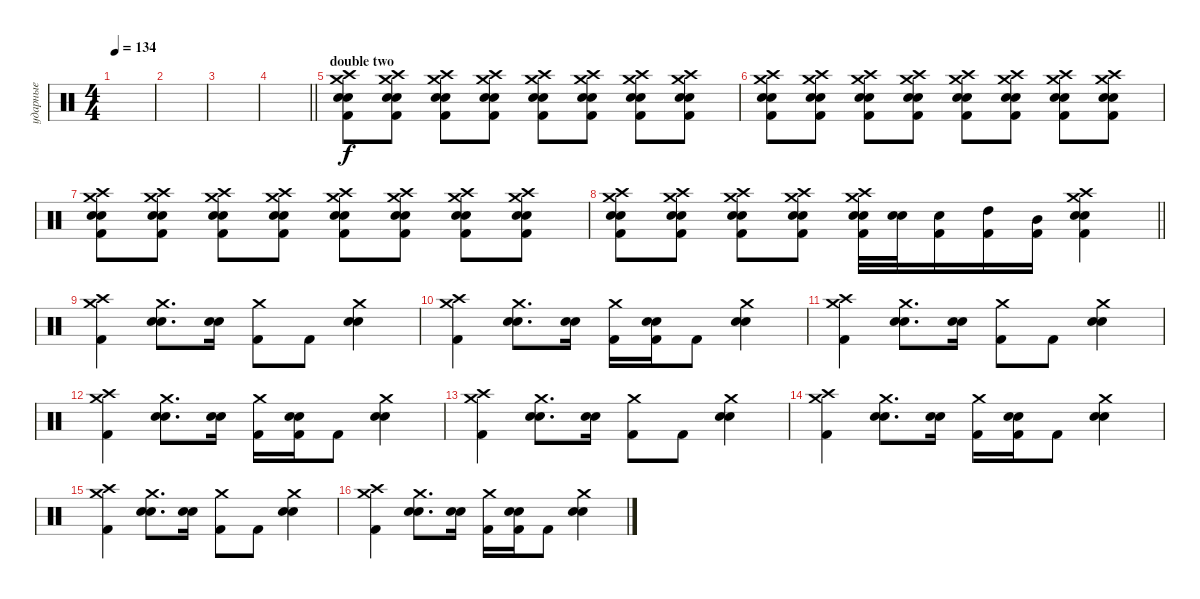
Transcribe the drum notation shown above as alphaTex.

\track ("ударные" "ударные") {instrument percussion}
\staff {score}
\articulation defaults
\ts (4 4)
\tempo 134
\clef neutral
\ks c
|
|
|
\barLineRight lightlight
|
\section ("" "double two")
("Crash high (hit)" "Crash medium (hit)" "Snare (hit) 2" "Electric Snare (hit)" "Kick (hit) 2").8 ("Crash high (hit)" "Crash medium (hit)" "Snare (hit) 2" "Electric Snare (hit)" "Kick (hit) 2").8 ("Crash high (hit)" "Crash medium (hit)" "Snare (hit) 2" "Electric Snare (hit)" "Kick (hit) 2").8 ("Crash high (hit)" "Crash medium (hit)" "Snare (hit) 2" "Electric Snare (hit)" "Kick (hit) 2").8 ("Crash high (hit)" "Crash medium (hit)" "Snare (hit) 2" "Electric Snare (hit)" "Kick (hit) 2").8 ("Crash high (hit)" "Crash medium (hit)" "Snare (hit) 2" "Electric Snare (hit)" "Kick (hit) 2").8 ("Crash high (hit)" "Crash medium (hit)" "Snare (hit) 2" "Electric Snare (hit)" "Kick (hit) 2").8 ("Crash high (hit)" "Crash medium (hit)" "Snare (hit) 2" "Electric Snare (hit)" "Kick (hit) 2").8 |
("Crash high (hit)" "Crash medium (hit)" "Snare (hit) 2" "Electric Snare (hit)" "Kick (hit) 2").8 ("Crash high (hit)" "Crash medium (hit)" "Snare (hit) 2" "Electric Snare (hit)" "Kick (hit) 2").8 ("Crash high (hit)" "Crash medium (hit)" "Snare (hit) 2" "Electric Snare (hit)" "Kick (hit) 2").8 ("Crash high (hit)" "Crash medium (hit)" "Snare (hit) 2" "Electric Snare (hit)" "Kick (hit) 2").8 ("Crash high (hit)" "Crash medium (hit)" "Snare (hit) 2" "Electric Snare (hit)" "Kick (hit) 2").8 ("Crash high (hit)" "Crash medium (hit)" "Snare (hit) 2" "Electric Snare (hit)" "Kick (hit) 2").8 ("Crash high (hit)" "Crash medium (hit)" "Snare (hit) 2" "Electric Snare (hit)" "Kick (hit) 2").8 ("Crash high (hit)" "Crash medium (hit)" "Snare (hit) 2" "Electric Snare (hit)" "Kick (hit) 2").8 |
("Crash high (hit)" "Crash medium (hit)" "Snare (hit) 2" "Electric Snare (hit)" "Kick (hit) 2").8 ("Crash high (hit)" "Crash medium (hit)" "Snare (hit) 2" "Electric Snare (hit)" "Kick (hit) 2").8 ("Crash high (hit)" "Crash medium (hit)" "Snare (hit) 2" "Electric Snare (hit)" "Kick (hit) 2").8 ("Crash high (hit)" "Crash medium (hit)" "Snare (hit) 2" "Electric Snare (hit)" "Kick (hit) 2").8 ("Crash high (hit)" "Crash medium (hit)" "Snare (hit) 2" "Electric Snare (hit)" "Kick (hit) 2").8 ("Crash high (hit)" "Crash medium (hit)" "Snare (hit) 2" "Electric Snare (hit)" "Kick (hit) 2").8 ("Crash high (hit)" "Crash medium (hit)" "Snare (hit) 2" "Electric Snare (hit)" "Kick (hit) 2").8 ("Crash high (hit)" "Crash medium (hit)" "Snare (hit) 2" "Electric Snare (hit)" "Kick (hit) 2").8 |
\barLineRight lightlight
("Crash high (hit)" "Crash medium (hit)" "Snare (hit) 2" "Electric Snare (hit)" "Kick (hit) 2").8 ("Crash high (hit)" "Crash medium (hit)" "Snare (hit) 2" "Electric Snare (hit)" "Kick (hit) 2").8 ("Crash high (hit)" "Crash medium (hit)" "Snare (hit) 2" "Electric Snare (hit)" "Kick (hit) 2").8 ("Crash high (hit)" "Crash medium (hit)" "Snare (hit) 2" "Electric Snare (hit)" "Kick (hit) 2").8 ("Crash high (hit)" "Crash medium (hit)" "Snare (hit) 2" "Electric Snare (hit)" "Kick (hit) 2").32 ("Snare (hit) 2" "Electric Snare (hit)").32 ("Snare (hit) 2" "Kick (hit) 2").16 ("High Tom (hit)" "Kick (hit) 2").16 ("Mid Tom (hit)" "Kick (hit) 2").16 ("Crash high (hit)" "Crash medium (hit)" "Snare (hit) 2" "Electric Snare (hit)" "Kick (hit) 2").4 |
("Crash high (hit)" "Crash medium (hit)" "Kick (hit) 2").4 ("Crash medium (hit)" "Snare (hit) 2" "Electric Snare (hit)").8{d} ("Snare (hit) 2" "Electric Snare (hit)").16 ("Crash medium (hit)" "Kick (hit) 2").8 "Kick (hit) 2".8 ("Crash medium (hit)" "Snare (hit) 2" "Electric Snare (hit)").4 |
("Crash high (hit)" "Crash medium (hit)" "Kick (hit) 2").4 ("Crash medium (hit)" "Snare (hit) 2" "Electric Snare (hit)").8{d} ("Snare (hit) 2" "Electric Snare (hit)").16 ("Crash medium (hit)" "Kick (hit) 2").16 ("Snare (hit) 2" "Electric Snare (hit)" "Kick (hit) 2").16 "Kick (hit) 2".8 ("Crash medium (hit)" "Snare (hit) 2" "Electric Snare (hit)").4 |
("Crash high (hit)" "Crash medium (hit)" "Kick (hit) 2").4 ("Crash medium (hit)" "Snare (hit) 2" "Electric Snare (hit)").8{d} ("Snare (hit) 2" "Electric Snare (hit)").16 ("Crash medium (hit)" "Kick (hit) 2").8 "Kick (hit) 2".8 ("Crash medium (hit)" "Snare (hit) 2" "Electric Snare (hit)").4 |
("Crash high (hit)" "Crash medium (hit)" "Kick (hit) 2").4 ("Crash medium (hit)" "Snare (hit) 2" "Electric Snare (hit)").8{d} ("Snare (hit) 2" "Electric Snare (hit)").16 ("Crash medium (hit)" "Kick (hit) 2").16 ("Snare (hit) 2" "Electric Snare (hit)" "Kick (hit) 2").16 "Kick (hit) 2".8 ("Crash medium (hit)" "Snare (hit) 2" "Electric Snare (hit)").4 |
("Crash high (hit)" "Crash medium (hit)" "Kick (hit) 2").4 ("Crash medium (hit)" "Snare (hit) 2" "Electric Snare (hit)").8{d} ("Snare (hit) 2" "Electric Snare (hit)").16 ("Crash medium (hit)" "Kick (hit) 2").8 "Kick (hit) 2".8 ("Crash medium (hit)" "Snare (hit) 2" "Electric Snare (hit)").4 |
("Crash high (hit)" "Crash medium (hit)" "Kick (hit) 2").4 ("Crash medium (hit)" "Snare (hit) 2" "Electric Snare (hit)").8{d} ("Snare (hit) 2" "Electric Snare (hit)").16 ("Crash medium (hit)" "Kick (hit) 2").16 ("Snare (hit) 2" "Electric Snare (hit)" "Kick (hit) 2").16 "Kick (hit) 2".8 ("Crash medium (hit)" "Snare (hit) 2" "Electric Snare (hit)").4 |
("Crash high (hit)" "Crash medium (hit)" "Kick (hit) 2").4 ("Crash medium (hit)" "Snare (hit) 2" "Electric Snare (hit)").8{d} ("Snare (hit) 2" "Electric Snare (hit)").16 ("Crash medium (hit)" "Kick (hit) 2").8 "Kick (hit) 2".8 ("Crash medium (hit)" "Snare (hit) 2" "Electric Snare (hit)").4 |
("Crash high (hit)" "Crash medium (hit)" "Kick (hit) 2").4 ("Crash medium (hit)" "Snare (hit) 2" "Electric Snare (hit)").8{d} ("Snare (hit) 2" "Electric Snare (hit)").16 ("Crash medium (hit)" "Kick (hit) 2").16 ("Snare (hit) 2" "Electric Snare (hit)" "Kick (hit) 2").16 "Kick (hit) 2".8 ("Crash medium (hit)" "Snare (hit) 2" "Electric Snare (hit)").4
